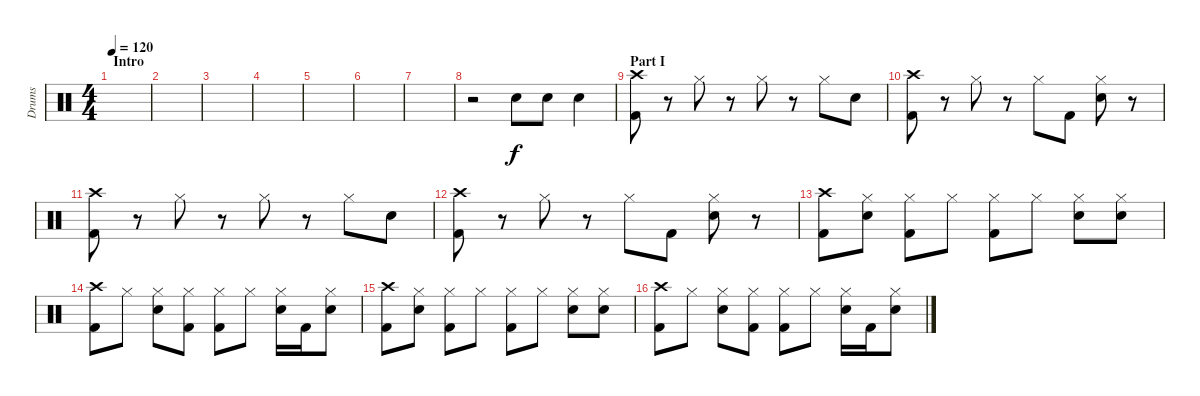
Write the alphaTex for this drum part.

\track ("Drums" "Drums") {instrument percussion}
\staff {score}
\articulation defaults
\ts (4 4)
\section ("" "Intro")
\tempo 120
\clef neutral
\ks c
|
|
|
|
|
|
|
r.2 "Snare (hit) 2".8 "Snare (hit) 2".8 "Snare (hit) 2".4 |
\section ("" "Part I")
("Crash high (hit)" "Kick (hit) 2").8 r.8 "Hi-Hat (closed)".8 r.8 "Hi-Hat (closed)".8 r.8 "Hi-Hat (closed)".8 "Snare (hit) 2".8 |
("Crash high (hit)" "Kick (hit) 2").8 r.8 "Hi-Hat (closed)".8 r.8 "Hi-Hat (closed)".8 "Kick (hit) 2".8 ("Hi-Hat (closed)" "Snare (hit) 2").8 r.8 |
("Crash high (hit)" "Kick (hit) 2").8 r.8 "Hi-Hat (closed)".8 r.8 "Hi-Hat (closed)".8 r.8 "Hi-Hat (closed)".8 "Snare (hit) 2".8 |
("Crash high (hit)" "Kick (hit) 2").8 r.8 "Hi-Hat (closed)".8 r.8 "Hi-Hat (closed)".8 "Kick (hit) 2".8 ("Hi-Hat (closed)" "Snare (hit) 2").8 r.8 |
("Crash high (hit)" "Kick (hit) 2").8 ("Hi-Hat (closed)" "Snare (hit) 2").8 ("Hi-Hat (closed)" "Kick (hit) 2").8 "Hi-Hat (closed)".8 ("Hi-Hat (closed)" "Kick (hit) 2").8 "Hi-Hat (closed)".8 ("Hi-Hat (closed)" "Snare (hit) 2").8 ("Hi-Hat (closed)" "Snare (hit) 2").8 |
("Crash high (hit)" "Kick (hit) 2").8 "Hi-Hat (closed)".8 ("Hi-Hat (closed)" "Snare (hit) 2").8 ("Hi-Hat (closed)" "Kick (hit) 2").8 ("Hi-Hat (closed)" "Kick (hit) 2").8 "Hi-Hat (closed)".8 ("Hi-Hat (closed)" "Snare (hit) 2").16 "Kick (hit) 2".16 ("Hi-Hat (closed)" "Snare (hit) 2").8 |
("Crash high (hit)" "Kick (hit) 2").8 ("Hi-Hat (closed)" "Snare (hit) 2").8 ("Hi-Hat (closed)" "Kick (hit) 2").8 "Hi-Hat (closed)".8 ("Hi-Hat (closed)" "Kick (hit) 2").8 "Hi-Hat (closed)".8 ("Hi-Hat (closed)" "Snare (hit) 2").8 ("Hi-Hat (closed)" "Snare (hit) 2").8 |
("Crash high (hit)" "Kick (hit) 2").8 "Hi-Hat (closed)".8 ("Hi-Hat (closed)" "Snare (hit) 2").8 ("Hi-Hat (closed)" "Kick (hit) 2").8 ("Hi-Hat (closed)" "Kick (hit) 2").8 "Hi-Hat (closed)".8 ("Hi-Hat (closed)" "Snare (hit) 2").16 "Kick (hit) 2".16 ("Hi-Hat (closed)" "Snare (hit) 2").8
